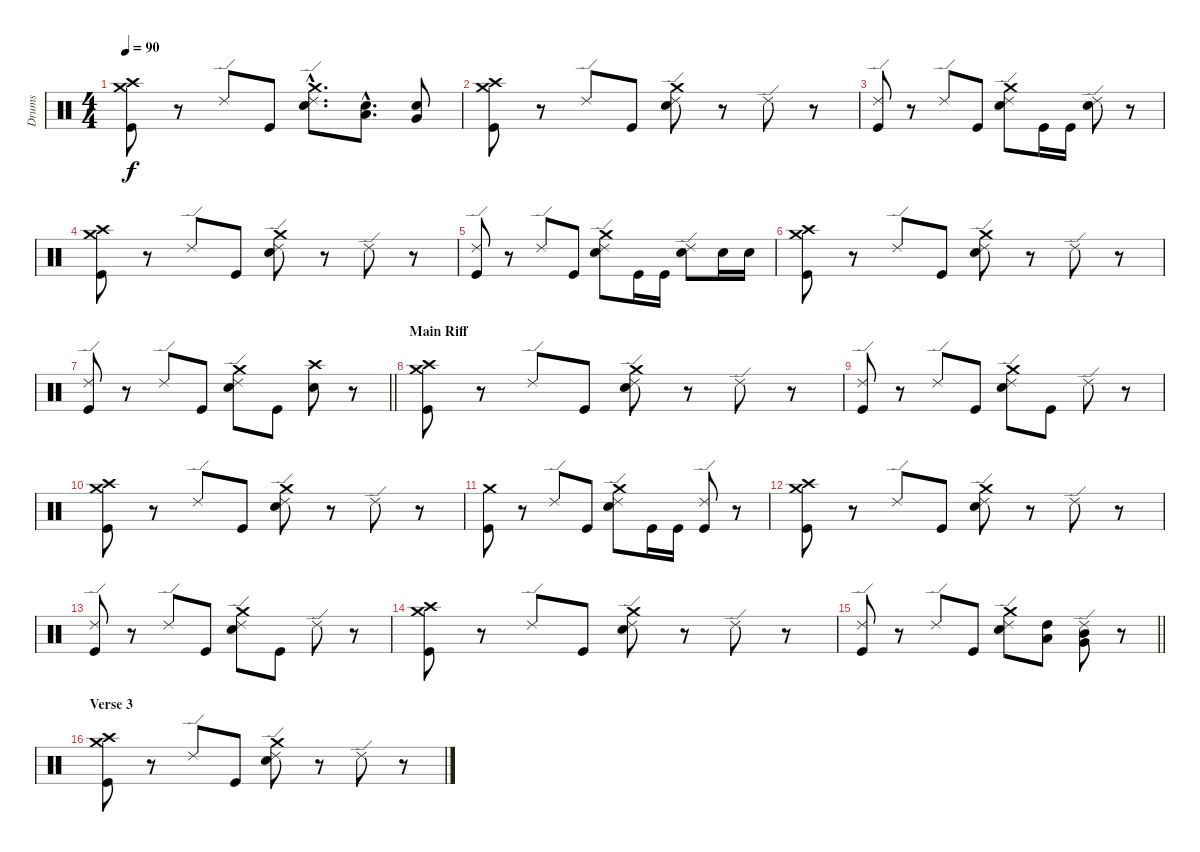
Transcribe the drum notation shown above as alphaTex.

\track ("Drums" "Drums") {instrument percussion}
\staff {score}
\articulation defaults
\ts (4 4)
\tempo 90
\clef neutral
\ks c
("Crash high (hit)" "Kick (hit)" "Crash medium (hit)").8{dy f} r.8 "Ride (edge) 2".8 "Kick (hit)".8 ("Ride (edge) 2"{hac} "Snare (hit) 2"{hac} "Crash medium (hit)"{hac}).8{d} ("Snare (hit) 2"{hac} "Low Tom (hit)"{hac}).8{d} ("Snare (hit) 2" "Very Low Tom (hit)").8 |
("Crash high (hit)" "Kick (hit)" "Crash medium (hit)").8 r.8 "Ride (edge) 2".8 "Kick (hit)".8 ("Ride (edge) 2" "Snare (hit) 2" "Crash medium (hit)").8 r.8 "Ride (edge) 2".8 r.8 |
("Ride (edge) 2" "Kick (hit)").8 r.8 "Ride (edge) 2".8 "Kick (hit)".8 ("Ride (edge) 2" "Snare (hit) 2" "Crash medium (hit)").8 "Kick (hit)".16 "Kick (hit)".16 ("Ride (edge) 2" "Snare (hit) 2").8 r.8 |
("Crash high (hit)" "Kick (hit)" "Crash medium (hit)").8 r.8 "Ride (edge) 2".8 "Kick (hit)".8 ("Ride (edge) 2" "Snare (hit) 2" "Crash medium (hit)").8 r.8 "Ride (edge) 2".8 r.8 |
("Ride (edge) 2" "Kick (hit)").8 r.8 "Ride (edge) 2".8 "Kick (hit)".8 ("Ride (edge) 2" "Snare (hit) 2" "Crash medium (hit)").8 "Kick (hit)".16 "Kick (hit)".16 ("Ride (edge) 2" "Snare (hit) 2").8 "Snare (hit) 2".16 "Snare (hit) 2".16 |
("Crash high (hit)" "Kick (hit)" "Crash medium (hit)").8 r.8 "Ride (edge) 2".8 "Kick (hit)".8 ("Ride (edge) 2" "Snare (hit) 2" "Crash medium (hit)").8 r.8 "Ride (edge) 2".8 r.8 |
\barLineRight lightlight
("Ride (edge) 2" "Kick (hit)").8 r.8 "Ride (edge) 2".8 "Kick (hit)".8 ("Ride (edge) 2" "Snare (hit) 2" "Crash medium (hit)").8 "Kick (hit)".8 ("Crash high (hit)" "Snare (hit) 2").8 r.8 |
\section ("" "Main Riff")
("Crash high (hit)" "Kick (hit)" "Crash medium (hit)").8 r.8 "Ride (edge) 2".8 "Kick (hit)".8 ("Ride (edge) 2" "Snare (hit) 2" "Crash medium (hit)").8 r.8 "Ride (edge) 2".8 r.8 |
("Ride (edge) 2" "Kick (hit)").8 r.8 "Ride (edge) 2".8 "Kick (hit)".8 ("Ride (edge) 2" "Snare (hit) 2" "Crash medium (hit)").8 "Kick (hit)".8 "Ride (edge) 2".8 r.8 |
("Crash high (hit)" "Kick (hit)" "Crash medium (hit)").8 r.8 "Ride (edge) 2".8 "Kick (hit)".8 ("Ride (edge) 2" "Snare (hit) 2" "Crash medium (hit)").8 r.8 "Ride (edge) 2".8 r.8 |
("Crash medium (hit)" "Kick (hit)").8 r.8 "Ride (edge) 2".8 "Kick (hit)".8 ("Ride (edge) 2" "Snare (hit) 2" "Crash medium (hit)").8 "Kick (hit)".16 "Kick (hit)".16 ("Ride (edge) 2" "Kick (hit)").8 r.8 |
("Crash high (hit)" "Kick (hit)" "Crash medium (hit)").8 r.8 "Ride (edge) 2".8 "Kick (hit)".8 ("Ride (edge) 2" "Snare (hit) 2" "Crash medium (hit)").8 r.8 "Ride (edge) 2".8 r.8 |
("Ride (edge) 2" "Kick (hit)").8 r.8 "Ride (edge) 2".8 "Kick (hit)".8 ("Ride (edge) 2" "Snare (hit) 2" "Crash medium (hit)").8 "Kick (hit)".8 "Ride (edge) 2".8 r.8 |
("Crash high (hit)" "Kick (hit)" "Crash medium (hit)").8 r.8 "Ride (edge) 2".8 "Kick (hit)".8 ("Ride (edge) 2" "Snare (hit) 2" "Crash medium (hit)").8 r.8 "Ride (edge) 2".8 r.8 |
\barLineRight lightlight
("Ride (edge) 2" "Kick (hit)").8 r.8 "Ride (edge) 2".8 "Kick (hit)".8 ("Ride (edge) 2" "Snare (hit) 2" "Crash medium (hit)").8 ("Low Tom (hit)" "High Tom (hit)").8 ("Ride (edge) 2" "Mid Tom (hit)" "Very Low Tom (hit)").8 r.8 |
\section ("" "Verse 3")
("Crash high (hit)" "Kick (hit)" "Crash medium (hit)").8 r.8 "Ride (edge) 2".8 "Kick (hit)".8 ("Ride (edge) 2" "Snare (hit) 2" "Crash medium (hit)").8 r.8 "Ride (edge) 2".8 r.8
